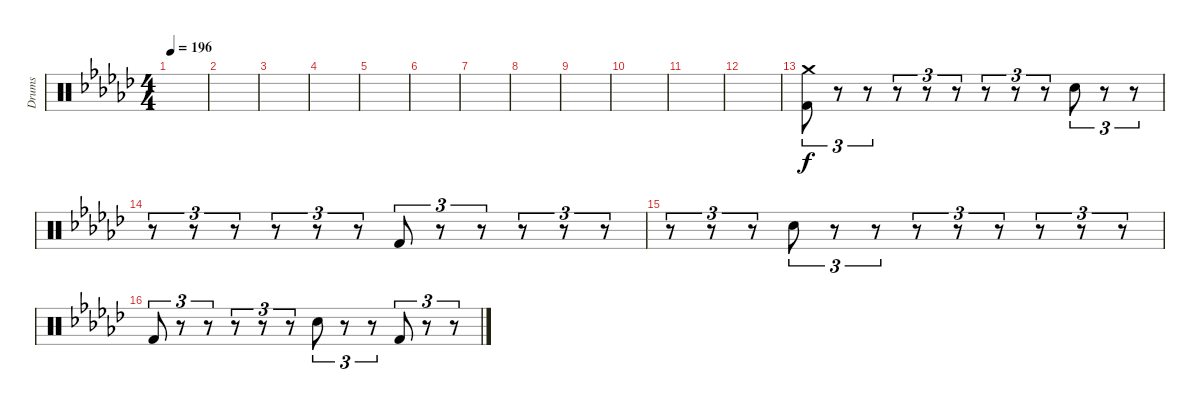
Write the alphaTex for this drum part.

\track ("Drums" "Drums") {instrument percussion}
\staff {score}
\articulation defaults
\ts (4 4)
\tempo 196
\clef neutral
\ks gb
|
|
|
|
|
|
|
|
|
|
|
|
("Crash medium (hit)" "Kick (hit) 2").8{tu (3 2)} r.8{tu (3 2)} r.8{tu (3 2)} r.8{tu (3 2)} r.8{tu (3 2)} r.8{tu (3 2)} r.8{tu (3 2)} r.8{tu (3 2)} r.8{tu (3 2)} "Snare (hit) 2".8{tu (3 2)} r.8{tu (3 2)} r.8{tu (3 2)} |
r.8{tu (3 2)} r.8{tu (3 2)} r.8{tu (3 2)} r.8{tu (3 2)} r.8{tu (3 2)} r.8{tu (3 2)} "Kick (hit) 2".8{tu (3 2)} r.8{tu (3 2)} r.8{tu (3 2)} r.8{tu (3 2)} r.8{tu (3 2)} r.8{tu (3 2)} |
r.8{tu (3 2)} r.8{tu (3 2)} r.8{tu (3 2)} "Snare (hit) 2".8{tu (3 2)} r.8{tu (3 2)} r.8{tu (3 2)} r.8{tu (3 2)} r.8{tu (3 2)} r.8{tu (3 2)} r.8{tu (3 2)} r.8{tu (3 2)} r.8{tu (3 2)} |
"Kick (hit) 2".8{tu (3 2)} r.8{tu (3 2)} r.8{tu (3 2)} r.8{tu (3 2)} r.8{tu (3 2)} r.8{tu (3 2)} "Snare (hit) 2".8{tu (3 2)} r.8{tu (3 2)} r.8{tu (3 2)} "Kick (hit) 2".8{tu (3 2)} r.8{tu (3 2)} r.8{tu (3 2)}
